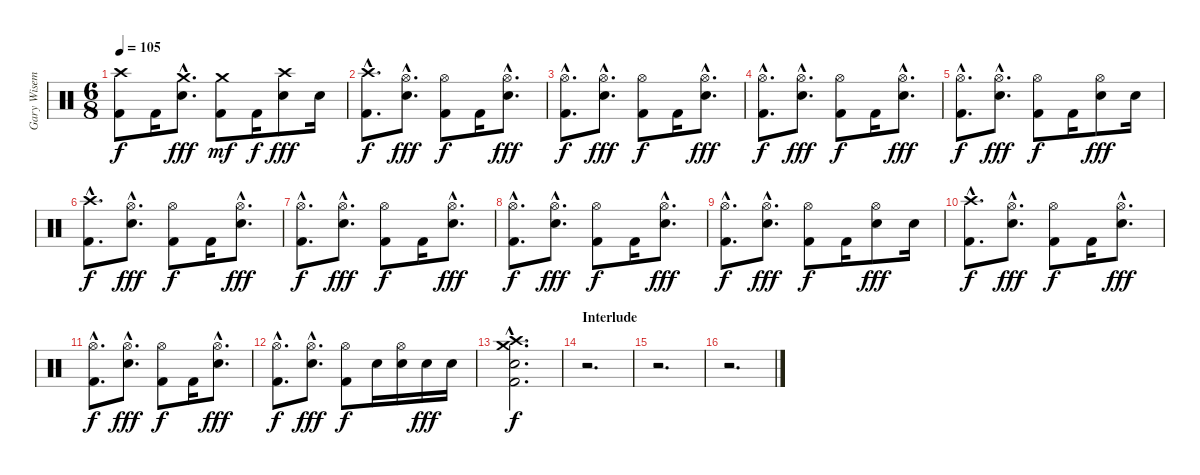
\track ("Gary Wiseman - Drums" "Gary Wisem") {instrument percussion}
\staff {score}
\articulation defaults
\ts (6 8)
\tempo 105
\clef neutral
\ks c
("Crash high (hit)" "Kick (hit) 2").8{dy f} "Kick (hit) 2".16 ("Crash medium (hit)"{hac} "Electric Snare (hit)"{hac}).8{d dy fff} ("Crash medium (hit)" "Kick (hit) 2").8{dy mf} "Kick (hit) 2".16{dy f} ("Crash high (hit)" "Electric Snare (hit)").8{dy fff} "Electric Snare (hit)".16 |
("Crash high (hit)"{hac} "Kick (hit) 2"{hac}).8{d dy f} ("Hi-Hat (open)"{hac} "Electric Snare (hit)"{hac}).8{d dy fff} ("Hi-Hat (open)" "Kick (hit) 2").8{dy f} "Kick (hit) 2".16 ("Hi-Hat (open)"{hac} "Electric Snare (hit)"{hac}).8{d dy fff} |
("Hi-Hat (open)"{hac} "Kick (hit) 2"{hac}).8{d dy f} ("Hi-Hat (open)"{hac} "Electric Snare (hit)"{hac}).8{d dy fff} ("Hi-Hat (open)" "Kick (hit) 2").8{dy f} "Kick (hit) 2".16 ("Hi-Hat (open)"{hac} "Electric Snare (hit)"{hac}).8{d dy fff} |
("Hi-Hat (open)"{hac} "Kick (hit) 2"{hac}).8{d dy f} ("Hi-Hat (open)"{hac} "Electric Snare (hit)"{hac}).8{d dy fff} ("Hi-Hat (open)" "Kick (hit) 2").8{dy f} "Kick (hit) 2".16 ("Hi-Hat (open)"{hac} "Electric Snare (hit)"{hac}).8{d dy fff} |
("Hi-Hat (open)"{hac} "Kick (hit) 2"{hac}).8{d dy f} ("Hi-Hat (open)"{hac} "Electric Snare (hit)"{hac}).8{d dy fff} ("Hi-Hat (open)" "Kick (hit) 2").8{dy f} "Kick (hit) 2".16 ("Hi-Hat (open)" "Electric Snare (hit)").8{dy fff} "Electric Snare (hit)".16 |
("Crash high (hit)"{hac} "Kick (hit) 2"{hac}).8{d dy f} ("Hi-Hat (open)"{hac} "Electric Snare (hit)"{hac}).8{d dy fff} ("Hi-Hat (open)" "Kick (hit) 2").8{dy f} "Kick (hit) 2".16 ("Hi-Hat (open)"{hac} "Electric Snare (hit)"{hac}).8{d dy fff} |
("Hi-Hat (open)"{hac} "Kick (hit) 2"{hac}).8{d dy f} ("Hi-Hat (open)"{hac} "Electric Snare (hit)"{hac}).8{d dy fff} ("Hi-Hat (open)" "Kick (hit) 2").8{dy f} "Kick (hit) 2".16 ("Hi-Hat (open)"{hac} "Electric Snare (hit)"{hac}).8{d dy fff} |
("Hi-Hat (open)"{hac} "Kick (hit) 2"{hac}).8{d dy f} ("Hi-Hat (open)"{hac} "Electric Snare (hit)"{hac}).8{d dy fff} ("Hi-Hat (open)" "Kick (hit) 2").8{dy f} "Kick (hit) 2".16 ("Hi-Hat (open)"{hac} "Electric Snare (hit)"{hac}).8{d dy fff} |
("Hi-Hat (open)"{hac} "Kick (hit) 2"{hac}).8{d dy f} ("Hi-Hat (open)"{hac} "Electric Snare (hit)"{hac}).8{d dy fff} ("Hi-Hat (open)" "Kick (hit) 2").8{dy f} "Kick (hit) 2".16 ("Hi-Hat (open)" "Electric Snare (hit)").8{dy fff} "Electric Snare (hit)".16 |
("Crash high (hit)"{hac} "Kick (hit) 2"{hac}).8{d dy f} ("Hi-Hat (open)"{hac} "Electric Snare (hit)"{hac}).8{d dy fff} ("Hi-Hat (open)" "Kick (hit) 2").8{dy f} "Kick (hit) 2".16 ("Hi-Hat (open)"{hac} "Electric Snare (hit)"{hac}).8{d dy fff} |
("Hi-Hat (open)"{hac} "Kick (hit) 2"{hac}).8{d dy f} ("Hi-Hat (open)"{hac} "Electric Snare (hit)"{hac}).8{d dy fff} ("Hi-Hat (open)" "Kick (hit) 2").8{dy f} "Kick (hit) 2".16 ("Hi-Hat (open)"{hac} "Electric Snare (hit)"{hac}).8{d dy fff} |
("Hi-Hat (open)"{hac} "Kick (hit) 2"{hac}).8{d dy f} ("Hi-Hat (open)"{hac} "Electric Snare (hit)"{hac}).8{d dy fff} ("Hi-Hat (open)" "Kick (hit) 2").8{dy f} "Electric Snare (hit)".16 ("Hi-Hat (open)" "Electric Snare (hit)").16 "Electric Snare (hit)".16{dy fff} "Electric Snare (hit)".16 |
("Crash medium (hit)"{hac} "Crash high (hit)"{hac} "Electric Snare (hit)"{hac} "Kick (hit) 2"{hac}).2{d dy f} |
\section ("" "Interlude")
r.2{d} |
r.2{d} |
r.2{d}
